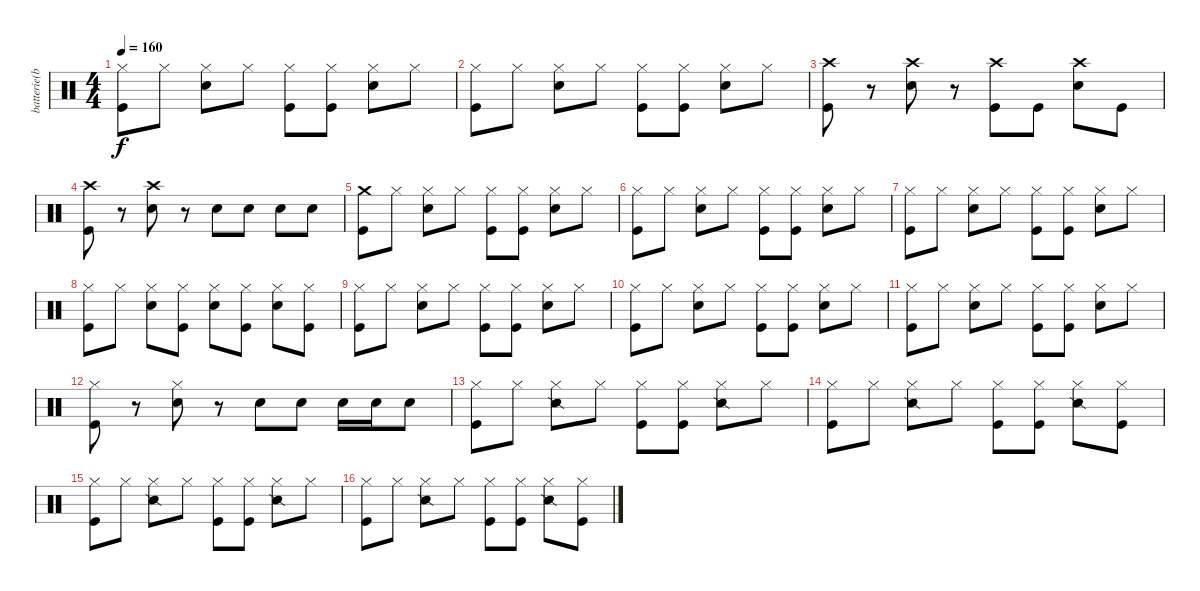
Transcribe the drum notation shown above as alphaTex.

\track ("batterie(brett)" "batterie(b") {instrument percussion}
\staff {score}
\articulation defaults
\ts (4 4)
\tempo 160
\clef neutral
\ks c
("Hi-Hat (closed)" "Kick (hit)").8{dy f} "Hi-Hat (closed)".8 ("Hi-Hat (closed)" "Snare (hit) 2").8 "Hi-Hat (closed)".8 ("Hi-Hat (closed)" "Kick (hit)").8 ("Hi-Hat (closed)" "Kick (hit)").8 ("Hi-Hat (closed)" "Snare (hit) 2").8 "Hi-Hat (closed)".8 |
("Hi-Hat (closed)" "Kick (hit)").8 "Hi-Hat (closed)".8 ("Hi-Hat (closed)" "Snare (hit) 2").8 "Hi-Hat (closed)".8 ("Hi-Hat (closed)" "Kick (hit)").8 ("Hi-Hat (closed)" "Kick (hit)").8 ("Hi-Hat (closed)" "Snare (hit) 2").8 "Hi-Hat (closed)".8 |
("Crash high (hit)" "Kick (hit)").8 r.8 ("Crash high (hit)" "Snare (hit) 2").8 r.8 ("Crash high (hit)" "Kick (hit)").8 "Kick (hit)".8 ("Crash high (hit)" "Snare (hit) 2").8 "Kick (hit)".8 |
("Crash high (hit)" "Kick (hit)").8 r.8 ("Crash high (hit)" "Snare (hit) 2").8 r.8 "Snare (hit) 2".8 "Snare (hit) 2".8 "Snare (hit) 2".8 "Snare (hit) 2".8 |
("Crash medium (hit)" "Kick (hit)").8 "Hi-Hat (closed)".8 ("Hi-Hat (closed)" "Snare (hit) 2").8 "Hi-Hat (closed)".8 ("Hi-Hat (closed)" "Kick (hit)").8 ("Hi-Hat (closed)" "Kick (hit)").8 ("Hi-Hat (closed)" "Snare (hit) 2").8 "Hi-Hat (closed)".8 |
("Hi-Hat (closed)" "Kick (hit)").8 "Hi-Hat (closed)".8 ("Hi-Hat (closed)" "Snare (hit) 2").8 "Hi-Hat (closed)".8 ("Hi-Hat (closed)" "Kick (hit)").8 ("Hi-Hat (closed)" "Kick (hit)").8 ("Hi-Hat (closed)" "Snare (hit) 2").8 "Hi-Hat (closed)".8 |
("Hi-Hat (closed)" "Kick (hit)").8 "Hi-Hat (closed)".8 ("Hi-Hat (closed)" "Snare (hit) 2").8 "Hi-Hat (closed)".8 ("Hi-Hat (closed)" "Kick (hit)").8 ("Hi-Hat (closed)" "Kick (hit)").8 ("Hi-Hat (closed)" "Snare (hit) 2").8 "Hi-Hat (closed)".8 |
("Hi-Hat (closed)" "Kick (hit)").8 "Hi-Hat (closed)".8 ("Hi-Hat (closed)" "Snare (hit) 2").8 ("Hi-Hat (closed)" "Kick (hit)").8 ("Hi-Hat (closed)" "Snare (hit) 2").8 ("Hi-Hat (closed)" "Kick (hit)").8 ("Hi-Hat (closed)" "Snare (hit) 2").8 ("Hi-Hat (closed)" "Kick (hit)").8 |
("Hi-Hat (closed)" "Kick (hit)").8 "Hi-Hat (closed)".8 ("Hi-Hat (closed)" "Snare (hit) 2").8 "Hi-Hat (closed)".8 ("Hi-Hat (closed)" "Kick (hit)").8 ("Hi-Hat (closed)" "Kick (hit)").8 ("Hi-Hat (closed)" "Snare (hit) 2").8 "Hi-Hat (closed)".8 |
("Hi-Hat (closed)" "Kick (hit)").8 "Hi-Hat (closed)".8 ("Hi-Hat (closed)" "Snare (hit) 2").8 "Hi-Hat (closed)".8 ("Hi-Hat (closed)" "Kick (hit)").8 ("Hi-Hat (closed)" "Kick (hit)").8 ("Hi-Hat (closed)" "Snare (hit) 2").8 "Hi-Hat (closed)".8 |
("Hi-Hat (closed)" "Kick (hit)").8 "Hi-Hat (closed)".8 ("Hi-Hat (closed)" "Snare (hit) 2").8 "Hi-Hat (closed)".8 ("Hi-Hat (closed)" "Kick (hit)").8 ("Hi-Hat (closed)" "Kick (hit)").8 ("Hi-Hat (closed)" "Snare (hit) 2").8 "Hi-Hat (closed)".8 |
("Hi-Hat (closed)" "Kick (hit)").8 r.8 ("Hi-Hat (closed)" "Snare (hit) 2").8 r.8 "Snare (hit) 2".8 "Snare (hit) 2".8 "Snare (hit) 2".16 "Snare (hit) 2".16 "Snare (hit) 2".8 |
("Hi-Hat (closed)" "Kick (hit)").8 "Hi-Hat (closed)".8 ("Hi-Hat (closed)" "Snare (side stick) 2").8 "Hi-Hat (closed)".8 ("Hi-Hat (closed)" "Kick (hit)").8 ("Hi-Hat (closed)" "Kick (hit)").8 ("Hi-Hat (closed)" "Snare (side stick) 2").8 "Hi-Hat (closed)".8 |
("Hi-Hat (closed)" "Kick (hit)").8 "Hi-Hat (closed)".8 ("Hi-Hat (closed)" "Snare (side stick) 2").8 "Hi-Hat (closed)".8 ("Hi-Hat (closed)" "Kick (hit)").8 ("Hi-Hat (closed)" "Kick (hit)").8 ("Hi-Hat (closed)" "Snare (side stick) 2").8 ("Hi-Hat (closed)" "Kick (hit)").8 |
("Hi-Hat (closed)" "Kick (hit)").8 "Hi-Hat (closed)".8 ("Hi-Hat (closed)" "Snare (side stick) 2").8 "Hi-Hat (closed)".8 ("Hi-Hat (closed)" "Kick (hit)").8 ("Hi-Hat (closed)" "Kick (hit)").8 ("Hi-Hat (closed)" "Snare (side stick) 2").8 "Hi-Hat (closed)".8 |
("Hi-Hat (closed)" "Kick (hit)").8 "Hi-Hat (closed)".8 ("Hi-Hat (closed)" "Snare (side stick) 2").8 "Hi-Hat (closed)".8 ("Hi-Hat (closed)" "Kick (hit)").8 ("Hi-Hat (closed)" "Kick (hit)").8 ("Hi-Hat (closed)" "Snare (side stick) 2").8 ("Hi-Hat (closed)" "Kick (hit)").8
